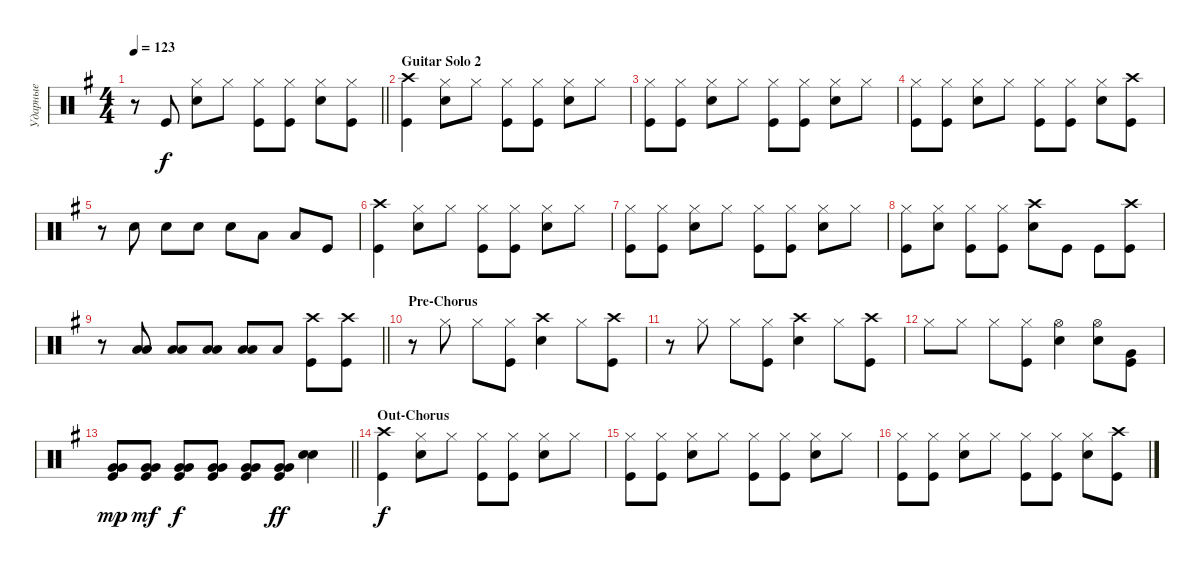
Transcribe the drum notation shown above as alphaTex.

\track ("Ударные" "Ударные") {instrument percussion}
\staff {score}
\articulation defaults
\ts (4 4)
\tempo 123
\clef neutral
\barLineRight lightlight
\ks eminor
r.8{dy f} "Kick (hit)".8 ("Snare (hit) 2" "Hi-Hat (closed)").8 "Hi-Hat (closed)".8 ("Hi-Hat (closed)" "Kick (hit)").8 ("Hi-Hat (closed)" "Kick (hit)").8 ("Hi-Hat (closed)" "Snare (hit) 2").8 ("Hi-Hat (closed)" "Kick (hit)").8 |
\section ("" "Guitar Solo 2")
("Kick (hit)" "Crash high (hit)").4 ("Snare (hit) 2" "Hi-Hat (closed)").8 "Hi-Hat (closed)".8 ("Hi-Hat (closed)" "Kick (hit)").8 ("Hi-Hat (closed)" "Kick (hit)").8 ("Hi-Hat (closed)" "Snare (hit) 2").8 "Hi-Hat (closed)".8 |
("Hi-Hat (closed)" "Kick (hit)").8 ("Hi-Hat (closed)" "Kick (hit)").8 ("Snare (hit) 2" "Hi-Hat (closed)").8 "Hi-Hat (closed)".8 ("Hi-Hat (closed)" "Kick (hit)").8 ("Hi-Hat (closed)" "Kick (hit)").8 ("Hi-Hat (closed)" "Snare (hit) 2").8 "Hi-Hat (closed)".8 |
("Hi-Hat (closed)" "Kick (hit)").8 ("Hi-Hat (closed)" "Kick (hit)").8 ("Snare (hit) 2" "Hi-Hat (closed)").8 "Hi-Hat (closed)".8 ("Hi-Hat (closed)" "Kick (hit)").8 ("Hi-Hat (closed)" "Kick (hit)").8 ("Hi-Hat (closed)" "Snare (hit) 2").8 ("Crash high (hit)" "Kick (hit)").8 |
r.8 "Snare (hit) 2".8 "Snare (hit) 2".8 "Snare (hit) 2".8 "Snare (hit) 2".8 "Low Tom (hit)".8 "Low Tom (hit)".8 "Kick (hit)".8 |
("Kick (hit)" "Crash high (hit)").4 ("Snare (hit) 2" "Hi-Hat (closed)").8 "Hi-Hat (closed)".8 ("Hi-Hat (closed)" "Kick (hit)").8 ("Hi-Hat (closed)" "Kick (hit)").8 ("Hi-Hat (closed)" "Snare (hit) 2").8 "Hi-Hat (closed)".8 |
("Hi-Hat (closed)" "Kick (hit)").8 ("Hi-Hat (closed)" "Kick (hit)").8 ("Snare (hit) 2" "Hi-Hat (closed)").8 "Hi-Hat (closed)".8 ("Hi-Hat (closed)" "Kick (hit)").8 ("Hi-Hat (closed)" "Kick (hit)").8 ("Hi-Hat (closed)" "Snare (hit) 2").8 "Hi-Hat (closed)".8 |
("Hi-Hat (closed)" "Kick (hit)").8 ("Hi-Hat (closed)" "Snare (hit) 2").8 ("Kick (hit)" "Hi-Hat (closed)").8 ("Hi-Hat (closed)" "Kick (hit)").8 ("Snare (hit) 2" "Crash high (hit)").8 "Kick (hit)".8 "Kick (hit)".8 ("Crash high (hit)" "Kick (hit)").8 |
\barLineRight lightlight
r.8 ("Low Tom (hit)" "Low Tom (hit)").8{bd 120} ("Low Tom (hit)" "Low Tom (hit)").8{bd 120} ("Low Tom (hit)" "Low Tom (hit)").8{bd 120} ("Low Tom (hit)" "Low Tom (hit)").8{bd 120} "Low Tom (hit)".8 ("Kick (hit)" "Crash high (hit)").8 ("Kick (hit)" "Crash high (hit)").8 |
\section ("" "Pre-Chorus")
r.8 "Hi-Hat (closed)".8 "Hi-Hat (closed)".8 ("Hi-Hat (closed)" "Kick (hit)").8 ("Crash high (hit)" "Snare (hit) 2").4 "Hi-Hat (closed)".8 ("Kick (hit)" "Crash high (hit)").8 |
r.8 "Hi-Hat (closed)".8 "Hi-Hat (closed)".8 ("Hi-Hat (closed)" "Kick (hit)").8 ("Crash high (hit)" "Snare (hit) 2").4 "Hi-Hat (closed)".8 ("Kick (hit)" "Crash high (hit)").8 |
"Hi-Hat (closed)".8 "Hi-Hat (closed)".8 "Hi-Hat (closed)".8 ("Hi-Hat (closed)" "Kick (hit)").8 ("Hi-Hat (open)" "Snare (hit) 2").4 ("Snare (hit) 2" "Hi-Hat (open)").8 ("Very Low Tom (hit)" "Kick (hit)").8 |
\barLineRight lightlight
("Kick (hit)" "Very Low Tom (hit)" "Very Low Tom (hit)").8{bd 60 dy mp} ("Kick (hit)" "Very Low Tom (hit)" "Very Low Tom (hit)").8{bd 60 dy mf} ("Kick (hit)" "Very Low Tom (hit)" "Very Low Tom (hit)").8{bd 60 dy f} ("Very Low Tom (hit)" "Kick (hit)" "Very Low Tom (hit)").8{bd 60} ("Kick (hit)" "Very Low Tom (hit)" "Very Low Tom (hit)").8{bd 60} ("Kick (hit)" "Very Low Tom (hit)" "Very Low Tom (hit)").8{bd 60 dy ff} ("Snare (hit) 2" "Snare (hit) 2").4{bd 240} |
\section ("" "Out-Chorus")
("Crash high (hit)" "Kick (hit)").4{dy f} ("Snare (hit) 2" "Hi-Hat (closed)").8 "Hi-Hat (closed)".8 ("Hi-Hat (closed)" "Kick (hit)").8 ("Hi-Hat (closed)" "Kick (hit)").8 ("Hi-Hat (closed)" "Snare (hit) 2").8 "Hi-Hat (closed)".8 |
("Hi-Hat (closed)" "Kick (hit)").8 ("Hi-Hat (closed)" "Kick (hit)").8 ("Snare (hit) 2" "Hi-Hat (closed)").8 "Hi-Hat (closed)".8 ("Hi-Hat (closed)" "Kick (hit)").8 ("Hi-Hat (closed)" "Kick (hit)").8 ("Hi-Hat (closed)" "Snare (hit) 2").8 "Hi-Hat (closed)".8 |
("Hi-Hat (closed)" "Kick (hit)").8 ("Hi-Hat (closed)" "Kick (hit)").8 ("Snare (hit) 2" "Hi-Hat (closed)").8 "Hi-Hat (closed)".8 ("Hi-Hat (closed)" "Kick (hit)").8 ("Hi-Hat (closed)" "Kick (hit)").8 ("Hi-Hat (closed)" "Snare (hit) 2").8 ("Kick (hit)" "Crash high (hit)").8
